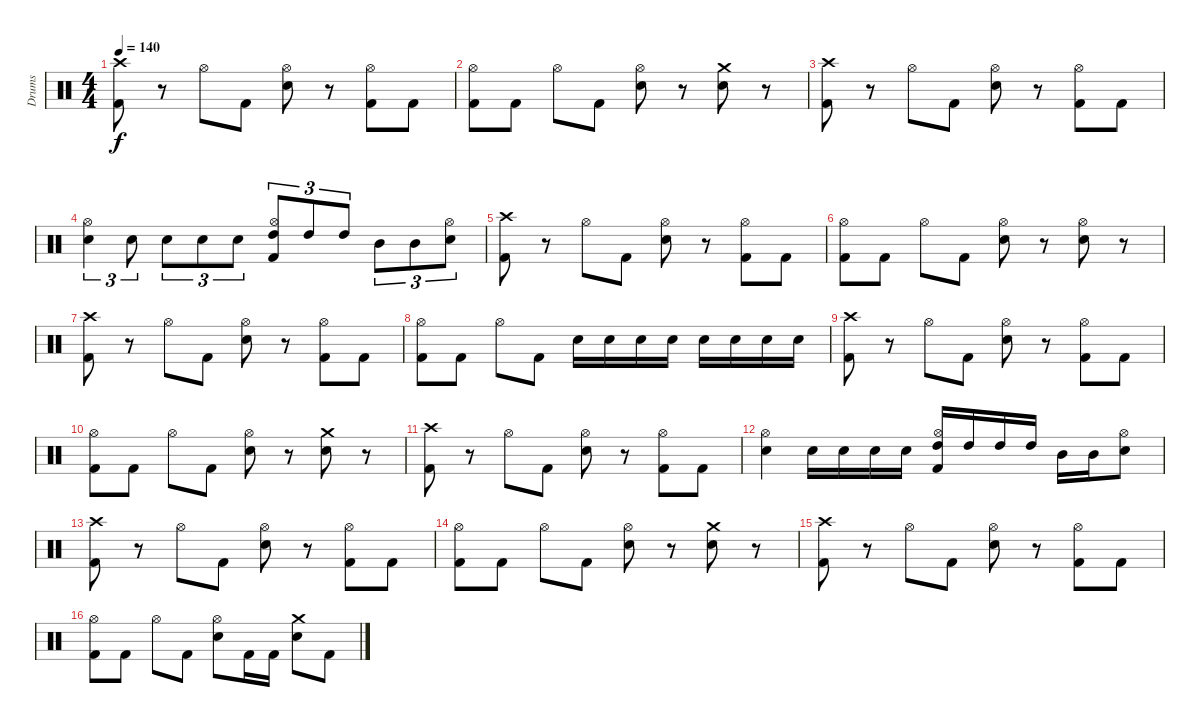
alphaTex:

\track ("Drums" "Drums") {instrument percussion}
\staff {score}
\articulation defaults
\ts (4 4)
\tempo 140
\clef neutral
\ks c
("Crash high (hit)" "Kick (hit) 2").8{dy f} r.8 "Hi-Hat (open)".8 "Kick (hit) 2".8 ("Hi-Hat (open)" "Snare (hit) 2").8 r.8 ("Hi-Hat (open)" "Kick (hit) 2").8 "Kick (hit) 2".8 |
("Hi-Hat (open)" "Kick (hit) 2").8 "Kick (hit) 2".8 "Hi-Hat (open)".8 "Kick (hit) 2".8 ("Hi-Hat (open)" "Snare (hit) 2").8 r.8 ("Crash medium (hit)" "Snare (hit) 2").8 r.8 |
("Crash high (hit)" "Kick (hit) 2").8 r.8 "Hi-Hat (open)".8 "Kick (hit) 2".8 ("Hi-Hat (open)" "Snare (hit) 2").8 r.8 ("Hi-Hat (open)" "Kick (hit) 2").8 "Kick (hit) 2".8 |
("Hi-Hat (open)" "Snare (hit) 2").4{tu (3 2)} "Snare (hit) 2".8{tu (3 2)} "Snare (hit) 2".8{tu (3 2)} "Snare (hit) 2".8{tu (3 2)} "Snare (hit) 2".8{tu (3 2)} ("Hi-Hat (open)" "High Tom (hit)" "Kick (hit) 2").8{tu (3 2)} "High Tom (hit)".8{tu (3 2)} "High Tom (hit)".8{tu (3 2)} "Mid Tom (hit)".8{tu (3 2)} "Mid Tom (hit)".8{tu (3 2)} ("Hi-Hat (open)" "Snare (hit) 2").8{tu (3 2)} |
("Crash high (hit)" "Kick (hit) 2").8 r.8 "Hi-Hat (open)".8 "Kick (hit) 2".8 ("Hi-Hat (open)" "Snare (hit) 2").8 r.8 ("Hi-Hat (open)" "Kick (hit) 2").8 "Kick (hit) 2".8 |
("Hi-Hat (open)" "Kick (hit) 2").8 "Kick (hit) 2".8 "Hi-Hat (open)".8 "Kick (hit) 2".8 ("Hi-Hat (open)" "Snare (hit) 2").8 r.8 ("Hi-Hat (open)" "Snare (hit) 2").8 r.8 |
("Crash high (hit)" "Kick (hit) 2").8 r.8 "Hi-Hat (open)".8 "Kick (hit) 2".8 ("Hi-Hat (open)" "Snare (hit) 2").8 r.8 ("Hi-Hat (open)" "Kick (hit) 2").8 "Kick (hit) 2".8 |
("Hi-Hat (open)" "Kick (hit) 2").8 "Kick (hit) 2".8 "Hi-Hat (open)".8 "Kick (hit) 2".8 "Snare (hit) 2".16 "Snare (hit) 2".16 "Snare (hit) 2".16 "Snare (hit) 2".16 "Snare (hit) 2".16 "Snare (hit) 2".16 "Snare (hit) 2".16 "Snare (hit) 2".16 |
("Crash high (hit)" "Kick (hit) 2").8 r.8 "Hi-Hat (open)".8 "Kick (hit) 2".8 ("Hi-Hat (open)" "Snare (hit) 2").8 r.8 ("Hi-Hat (open)" "Kick (hit) 2").8 "Kick (hit) 2".8 |
("Hi-Hat (open)" "Kick (hit) 2").8 "Kick (hit) 2".8 "Hi-Hat (open)".8 "Kick (hit) 2".8 ("Hi-Hat (open)" "Snare (hit) 2").8 r.8 ("Crash medium (hit)" "Snare (hit) 2").8 r.8 |
("Crash high (hit)" "Kick (hit) 2").8{volume 0} r.8 "Hi-Hat (open)".8 "Kick (hit) 2".8 ("Hi-Hat (open)" "Snare (hit) 2").8 r.8 ("Hi-Hat (open)" "Kick (hit) 2").8 "Kick (hit) 2".8 |
("Hi-Hat (open)" "Snare (hit) 2").4 "Snare (hit) 2".16 "Snare (hit) 2".16 "Snare (hit) 2".16 "Snare (hit) 2".16 ("Hi-Hat (open)" "High Tom (hit)" "Kick (hit) 2").16 "High Tom (hit)".16 "High Tom (hit)".16 "High Tom (hit)".16 "Mid Tom (hit)".16 "Mid Tom (hit)".16 ("Hi-Hat (open)" "Snare (hit) 2").8 |
("Crash high (hit)" "Kick (hit) 2").8 r.8 "Hi-Hat (open)".8 "Kick (hit) 2".8 ("Hi-Hat (open)" "Snare (hit) 2").8 r.8 ("Hi-Hat (open)" "Kick (hit) 2").8 "Kick (hit) 2".8 |
("Hi-Hat (open)" "Kick (hit) 2").8 "Kick (hit) 2".8 "Hi-Hat (open)".8 "Kick (hit) 2".8 ("Hi-Hat (open)" "Snare (hit) 2").8 r.8 ("Crash medium (hit)" "Snare (hit) 2").8 r.8 |
("Crash high (hit)" "Kick (hit) 2").8 r.8 "Hi-Hat (open)".8 "Kick (hit) 2".8 ("Hi-Hat (open)" "Snare (hit) 2").8 r.8 ("Hi-Hat (open)" "Kick (hit) 2").8 "Kick (hit) 2".8 |
("Hi-Hat (open)" "Kick (hit) 2").8 "Kick (hit) 2".8 "Hi-Hat (open)".8 "Kick (hit) 2".8 ("Hi-Hat (open)" "Snare (hit) 2").8 "Kick (hit) 2".16 "Kick (hit) 2".16 ("Crash medium (hit)" "Snare (hit) 2").8 "Kick (hit) 2".8
